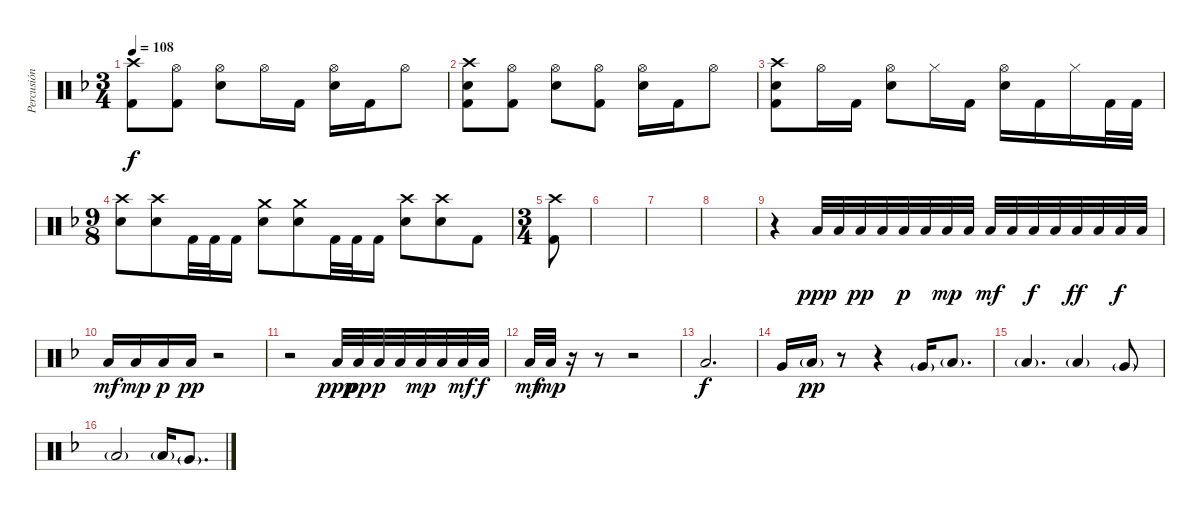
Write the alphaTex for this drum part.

\track ("Percusión" "Percusión") {instrument percussion}
\staff {score}
\articulation defaults
\ts (3 4)
\tempo 108
\clef neutral
\ks f
("Crash high (hit)" "Kick (hit) 2").8{dy f} ("Hi-Hat (open)" "Kick (hit) 2").8 ("Hi-Hat (open)" "Snare (hit) 2").8 "Hi-Hat (open)".16 "Kick (hit) 2".16 ("Hi-Hat (open)" "Snare (hit) 2").16 "Kick (hit) 2".16 "Hi-Hat (open)".8 |
("Crash high (hit)" "Snare (hit) 2" "Kick (hit) 2").8 ("Hi-Hat (open)" "Kick (hit) 2").8 ("Hi-Hat (open)" "Snare (hit) 2").8 ("Hi-Hat (open)" "Kick (hit) 2").8 ("Hi-Hat (open)" "Snare (hit) 2").16 "Kick (hit) 2".16 "Hi-Hat (open)".8 |
("Crash high (hit)" "Snare (hit) 2" "Kick (hit) 2").8 "Hi-Hat (open)".16 "Kick (hit) 2".16 ("Hi-Hat (open)" "Snare (hit) 2").8 "Hi-Hat (closed)".16 "Kick (hit) 2".16 ("Hi-Hat (open)" "Snare (hit) 2").16 "Kick (hit) 2".16 "Hi-Hat (closed)".16 "Kick (hit) 2".32 "Kick (hit) 2".32 |
\ts (9 8)
("Crash high (hit)" "Snare (hit) 2").8 ("Crash high (hit)" "Snare (hit) 2").8 "Kick (hit) 2".32 "Kick (hit) 2".32 "Kick (hit) 2".16 ("Crash medium (hit)" "Snare (hit) 2").8 ("Crash medium (hit)" "Snare (hit) 2").8 "Kick (hit) 2".32 "Kick (hit) 2".32 "Kick (hit) 2".16 ("Crash high (hit)" "Snare (hit) 2").8 ("Crash high (hit)" "Snare (hit) 2").8 "Kick (hit) 2".8 |
\ts (3 4)
("Crash high (hit)" "Kick (hit) 2").8 |
|
|
|
r.4 "Low Floor Tom (hit)".32{dy ppp} "Low Floor Tom (hit)".32 "Low Floor Tom (hit)".32{dy pp} "Low Floor Tom (hit)".32 "Low Floor Tom (hit)".32{dy p} "Low Floor Tom (hit)".32 "Low Floor Tom (hit)".32{dy mp} "Low Floor Tom (hit)".32 "Low Floor Tom (hit)".32{dy mf} "Low Floor Tom (hit)".32 "Low Floor Tom (hit)".32{dy f} "Low Floor Tom (hit)".32 "Low Floor Tom (hit)".32{dy ff} "Low Floor Tom (hit)".32 "Low Floor Tom (hit)".32{dy f} "Low Floor Tom (hit)".32 |
"Low Floor Tom (hit)".16{dy mf} "Low Floor Tom (hit)".16{dy mp} "Low Floor Tom (hit)".16{dy p} "Low Floor Tom (hit)".16{dy pp} r.2 |
r.2 "Low Floor Tom (hit)".32{dy ppp} "Low Floor Tom (hit)".32{dy pp} "Low Floor Tom (hit)".32{dy p} "Low Floor Tom (hit)".32 "Low Floor Tom (hit)".32{dy mp} "Low Floor Tom (hit)".32 "Low Floor Tom (hit)".32{dy mf} "Low Floor Tom (hit)".32{dy f} |
"Low Floor Tom (hit)".32{dy mf} "Low Floor Tom (hit)".32{dy mp} r.16 r.8 r.2 |
"Low Floor Tom (hit)".2{d dy f} |
"Very Low Tom (hit)".16 "Low Floor Tom (hit)"{g}.16{dy pp} r.8 r.4 "Very Low Tom (hit)"{g}.16 "Low Floor Tom (hit)"{g}.8{d} |
"Low Floor Tom (hit)"{g}.4{d} "Low Tom (hit)"{g}.4 "Very Low Tom (hit)"{g}.8 |
"Low Floor Tom (hit)"{g}.2 "Low Tom (hit)"{g}.16 "Very Low Tom (hit)"{g}.8{d}
